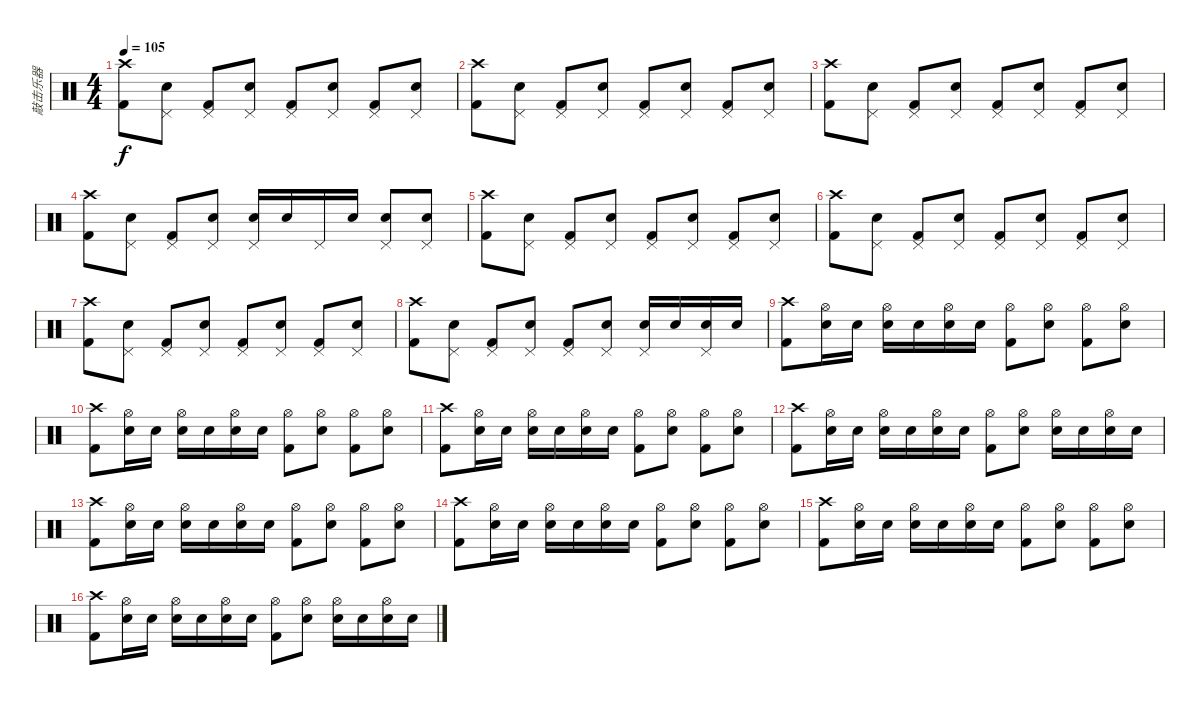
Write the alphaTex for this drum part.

\track ("敲击乐器" "敲击乐器") {instrument percussion}
\staff {score}
\articulation defaults
\ts (4 4)
\tempo 105
\clef neutral
\ks c
("Crash high (hit)" "Kick (hit) 2").8{dy f} ("Pedal Hi-Hat (hit)" "Snare (hit) 2").8 ("Pedal Hi-Hat (hit)" "Kick (hit) 2").8 ("Pedal Hi-Hat (hit)" "Snare (hit) 2").8 ("Pedal Hi-Hat (hit)" "Kick (hit) 2").8 ("Pedal Hi-Hat (hit)" "Snare (hit) 2").8 ("Pedal Hi-Hat (hit)" "Kick (hit) 2").8 ("Pedal Hi-Hat (hit)" "Snare (hit) 2").8 |
("Crash high (hit)" "Kick (hit) 2").8 ("Pedal Hi-Hat (hit)" "Snare (hit) 2").8 ("Pedal Hi-Hat (hit)" "Kick (hit) 2").8 ("Pedal Hi-Hat (hit)" "Snare (hit) 2").8 ("Pedal Hi-Hat (hit)" "Kick (hit) 2").8 ("Pedal Hi-Hat (hit)" "Snare (hit) 2").8 ("Pedal Hi-Hat (hit)" "Kick (hit) 2").8 ("Pedal Hi-Hat (hit)" "Snare (hit) 2").8 |
("Crash high (hit)" "Kick (hit) 2").8 ("Pedal Hi-Hat (hit)" "Snare (hit) 2").8 ("Pedal Hi-Hat (hit)" "Kick (hit) 2").8 ("Pedal Hi-Hat (hit)" "Snare (hit) 2").8 ("Pedal Hi-Hat (hit)" "Kick (hit) 2").8 ("Pedal Hi-Hat (hit)" "Snare (hit) 2").8 ("Pedal Hi-Hat (hit)" "Kick (hit) 2").8 ("Pedal Hi-Hat (hit)" "Snare (hit) 2").8 |
("Crash high (hit)" "Kick (hit) 2").8 ("Pedal Hi-Hat (hit)" "Snare (hit) 2").8 ("Pedal Hi-Hat (hit)" "Kick (hit) 2").8 ("Pedal Hi-Hat (hit)" "Snare (hit) 2").8 ("Pedal Hi-Hat (hit)" "Snare (hit) 2").16 "Snare (hit) 2".16 "Pedal Hi-Hat (hit)".16 "Snare (hit) 2".16 ("Pedal Hi-Hat (hit)" "Snare (hit) 2").8 ("Pedal Hi-Hat (hit)" "Snare (hit) 2").8 |
("Crash high (hit)" "Kick (hit) 2").8 ("Pedal Hi-Hat (hit)" "Snare (hit) 2").8 ("Pedal Hi-Hat (hit)" "Kick (hit) 2").8 ("Pedal Hi-Hat (hit)" "Snare (hit) 2").8 ("Pedal Hi-Hat (hit)" "Kick (hit) 2").8 ("Pedal Hi-Hat (hit)" "Snare (hit) 2").8 ("Pedal Hi-Hat (hit)" "Kick (hit) 2").8 ("Pedal Hi-Hat (hit)" "Snare (hit) 2").8 |
("Crash high (hit)" "Kick (hit) 2").8 ("Pedal Hi-Hat (hit)" "Snare (hit) 2").8 ("Pedal Hi-Hat (hit)" "Kick (hit) 2").8 ("Pedal Hi-Hat (hit)" "Snare (hit) 2").8 ("Pedal Hi-Hat (hit)" "Kick (hit) 2").8 ("Pedal Hi-Hat (hit)" "Snare (hit) 2").8 ("Pedal Hi-Hat (hit)" "Kick (hit) 2").8 ("Pedal Hi-Hat (hit)" "Snare (hit) 2").8 |
("Crash high (hit)" "Kick (hit) 2").8 ("Pedal Hi-Hat (hit)" "Snare (hit) 2").8 ("Pedal Hi-Hat (hit)" "Kick (hit) 2").8 ("Pedal Hi-Hat (hit)" "Snare (hit) 2").8 ("Pedal Hi-Hat (hit)" "Kick (hit) 2").8 ("Pedal Hi-Hat (hit)" "Snare (hit) 2").8 ("Pedal Hi-Hat (hit)" "Kick (hit) 2").8 ("Pedal Hi-Hat (hit)" "Snare (hit) 2").8 |
("Crash high (hit)" "Kick (hit) 2").8 ("Pedal Hi-Hat (hit)" "Snare (hit) 2").8 ("Pedal Hi-Hat (hit)" "Kick (hit) 2").8 ("Pedal Hi-Hat (hit)" "Snare (hit) 2").8 ("Pedal Hi-Hat (hit)" "Kick (hit) 2").8 ("Pedal Hi-Hat (hit)" "Snare (hit) 2").8 ("Pedal Hi-Hat (hit)" "Snare (hit) 2").16 "Snare (hit) 2".16 ("Pedal Hi-Hat (hit)" "Snare (hit) 2").16 "Snare (hit) 2".16 |
("Crash high (hit)" "Kick (hit) 2").8 ("Hi-Hat (open)" "Snare (hit) 2").16 "Snare (hit) 2".16 ("Hi-Hat (open)" "Snare (hit) 2").16 "Snare (hit) 2".16 ("Hi-Hat (open)" "Snare (hit) 2").16 "Snare (hit) 2".16 ("Hi-Hat (open)" "Kick (hit) 2").8 ("Hi-Hat (open)" "Snare (hit) 2").8 ("Hi-Hat (open)" "Kick (hit) 2").8 ("Hi-Hat (open)" "Snare (hit) 2").8 |
("Crash high (hit)" "Kick (hit) 2").8 ("Hi-Hat (open)" "Snare (hit) 2").16 "Snare (hit) 2".16 ("Hi-Hat (open)" "Snare (hit) 2").16 "Snare (hit) 2".16 ("Hi-Hat (open)" "Snare (hit) 2").16 "Snare (hit) 2".16 ("Hi-Hat (open)" "Kick (hit) 2").8 ("Hi-Hat (open)" "Snare (hit) 2").8 ("Hi-Hat (open)" "Kick (hit) 2").8 ("Hi-Hat (open)" "Snare (hit) 2").8 |
("Crash high (hit)" "Kick (hit) 2").8 ("Hi-Hat (open)" "Snare (hit) 2").16 "Snare (hit) 2".16 ("Hi-Hat (open)" "Snare (hit) 2").16 "Snare (hit) 2".16 ("Hi-Hat (open)" "Snare (hit) 2").16 "Snare (hit) 2".16 ("Hi-Hat (open)" "Kick (hit) 2").8 ("Hi-Hat (open)" "Snare (hit) 2").8 ("Hi-Hat (open)" "Kick (hit) 2").8 ("Hi-Hat (open)" "Snare (hit) 2").8 |
("Crash high (hit)" "Kick (hit) 2").8 ("Hi-Hat (open)" "Snare (hit) 2").16 "Snare (hit) 2".16 ("Hi-Hat (open)" "Snare (hit) 2").16 "Snare (hit) 2".16 ("Hi-Hat (open)" "Snare (hit) 2").16 "Snare (hit) 2".16 ("Hi-Hat (open)" "Kick (hit) 2").8 ("Hi-Hat (open)" "Snare (hit) 2").8 ("Hi-Hat (open)" "Snare (hit) 2").16 "Snare (hit) 2".16 ("Hi-Hat (open)" "Snare (hit) 2").16 "Snare (hit) 2".16 |
("Crash high (hit)" "Kick (hit) 2").8 ("Hi-Hat (open)" "Snare (hit) 2").16 "Snare (hit) 2".16 ("Hi-Hat (open)" "Snare (hit) 2").16 "Snare (hit) 2".16 ("Hi-Hat (open)" "Snare (hit) 2").16 "Snare (hit) 2".16 ("Hi-Hat (open)" "Kick (hit) 2").8 ("Hi-Hat (open)" "Snare (hit) 2").8 ("Hi-Hat (open)" "Kick (hit) 2").8 ("Hi-Hat (open)" "Snare (hit) 2").8 |
("Crash high (hit)" "Kick (hit) 2").8 ("Hi-Hat (open)" "Snare (hit) 2").16 "Snare (hit) 2".16 ("Hi-Hat (open)" "Snare (hit) 2").16 "Snare (hit) 2".16 ("Hi-Hat (open)" "Snare (hit) 2").16 "Snare (hit) 2".16 ("Hi-Hat (open)" "Kick (hit) 2").8 ("Hi-Hat (open)" "Snare (hit) 2").8 ("Hi-Hat (open)" "Kick (hit) 2").8 ("Hi-Hat (open)" "Snare (hit) 2").8 |
("Crash high (hit)" "Kick (hit) 2").8 ("Hi-Hat (open)" "Snare (hit) 2").16 "Snare (hit) 2".16 ("Hi-Hat (open)" "Snare (hit) 2").16 "Snare (hit) 2".16 ("Hi-Hat (open)" "Snare (hit) 2").16 "Snare (hit) 2".16 ("Hi-Hat (open)" "Kick (hit) 2").8 ("Hi-Hat (open)" "Snare (hit) 2").8 ("Hi-Hat (open)" "Kick (hit) 2").8 ("Hi-Hat (open)" "Snare (hit) 2").8 |
("Crash high (hit)" "Kick (hit) 2").8 ("Hi-Hat (open)" "Snare (hit) 2").16 "Snare (hit) 2".16 ("Hi-Hat (open)" "Snare (hit) 2").16 "Snare (hit) 2".16 ("Hi-Hat (open)" "Snare (hit) 2").16 "Snare (hit) 2".16 ("Hi-Hat (open)" "Kick (hit) 2").8 ("Hi-Hat (open)" "Snare (hit) 2").8 ("Hi-Hat (open)" "Snare (hit) 2").16 "Snare (hit) 2".16 ("Hi-Hat (open)" "Snare (hit) 2").16 "Snare (hit) 2".16
